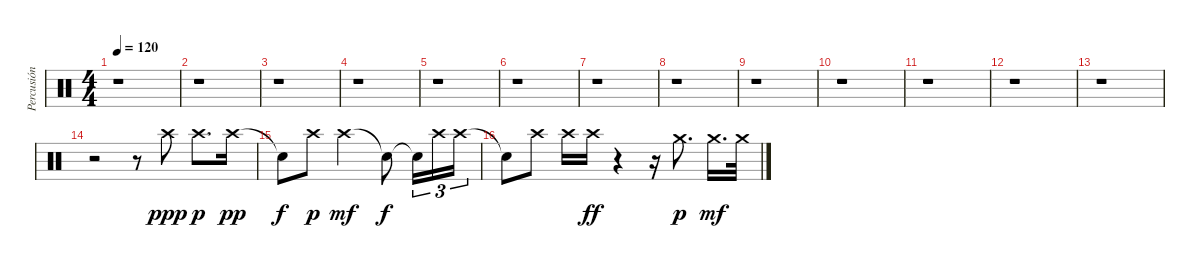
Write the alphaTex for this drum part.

\track ("Percusión" "Percusión") {instrument percussion}
\staff {score}
\articulation defaults
\ts (4 4)
\tempo 120
\clef neutral
\ks c
r.1{dy ppp} |
r.1 |
r.1 |
r.1 |
r.1 |
r.1 |
r.1 |
r.1 |
r.1 |
r.1 |
r.1 |
r.1 |
r.1 |
r.2 r.8 "Crash high (hit)".8 "Crash high (hit)".8{d dy p} "Crash high (hit)".16{dy pp} |
"Snare (hit)"{t}.8{dy f} "Crash high (hit)".8{dy p} "Crash high (hit)".2{dy mf} "Snare (hit)"{t}.8{dy f} "Snare (hit)"{t}.16{tu (3 2)} "Crash high (hit)".16{tu (3 2)} "Crash high (hit)".16{tu (3 2)} |
"Snare (hit)"{t}.8 "Crash high (hit)".8 "Crash high (hit)".16 "Crash high (hit)".16{dy ff} r.4 r.16 "Crash medium (hit)".8{d dy p} "Crash medium (hit)".16{d dy mf} "Crash medium (hit)".32
